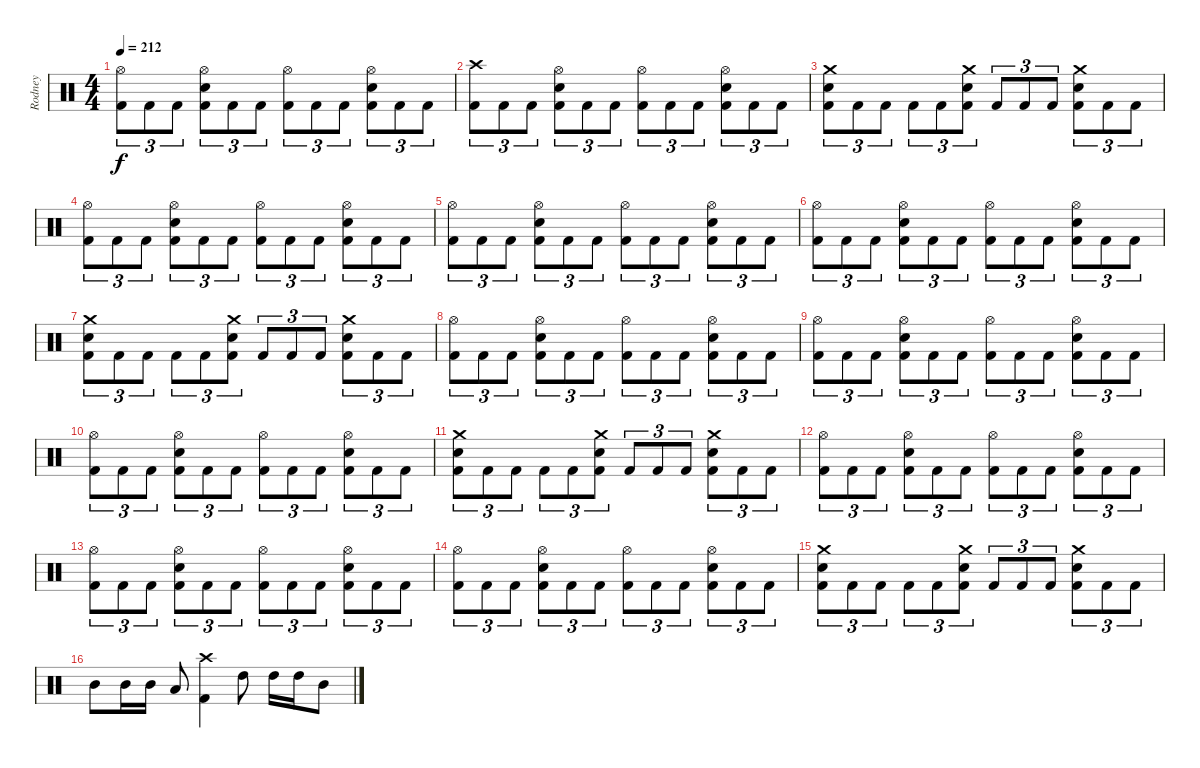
\track ("Rodney" "Rodney") {instrument percussion}
\staff {score}
\articulation defaults
\ts (4 4)
\tempo 212
\clef neutral
\ks c
("Hi-Hat (open)" "Kick (hit) 2").8{tu (3 2) dy f} "Kick (hit) 2".8{tu (3 2)} "Kick (hit) 2".8{tu (3 2)} ("Hi-Hat (open)" "Snare (hit) 2" "Kick (hit) 2").8{tu (3 2)} "Kick (hit) 2".8{tu (3 2)} "Kick (hit) 2".8{tu (3 2)} ("Hi-Hat (open)" "Kick (hit) 2").8{tu (3 2)} "Kick (hit) 2".8{tu (3 2)} "Kick (hit) 2".8{tu (3 2)} ("Hi-Hat (open)" "Snare (hit) 2" "Kick (hit) 2").8{tu (3 2)} "Kick (hit) 2".8{tu (3 2)} "Kick (hit) 2".8{tu (3 2)} |
("Crash high (hit)" "Kick (hit) 2").8{tu (3 2)} "Kick (hit) 2".8{tu (3 2)} "Kick (hit) 2".8{tu (3 2)} ("Hi-Hat (open)" "Snare (hit) 2" "Kick (hit) 2").8{tu (3 2)} "Kick (hit) 2".8{tu (3 2)} "Kick (hit) 2".8{tu (3 2)} ("Hi-Hat (open)" "Kick (hit) 2").8{tu (3 2)} "Kick (hit) 2".8{tu (3 2)} "Kick (hit) 2".8{tu (3 2)} ("Hi-Hat (open)" "Snare (hit) 2" "Kick (hit) 2").8{tu (3 2)} "Kick (hit) 2".8{tu (3 2)} "Kick (hit) 2".8{tu (3 2)} |
("Crash medium (hit)" "Snare (hit) 2" "Kick (hit) 2").8{tu (3 2)} "Kick (hit) 2".8{tu (3 2)} "Kick (hit) 2".8{tu (3 2)} "Kick (hit) 2".8{tu (3 2)} "Kick (hit) 2".8{tu (3 2)} ("Crash medium (hit)" "Snare (hit) 2" "Kick (hit) 2").8{tu (3 2)} "Kick (hit) 2".8{tu (3 2)} "Kick (hit) 2".8{tu (3 2)} "Kick (hit) 2".8{tu (3 2)} ("Crash medium (hit)" "Snare (hit) 2" "Kick (hit) 2").8{tu (3 2)} "Kick (hit) 2".8{tu (3 2)} "Kick (hit) 2".8{tu (3 2)} |
("Hi-Hat (open)" "Kick (hit) 2").8{tu (3 2)} "Kick (hit) 2".8{tu (3 2)} "Kick (hit) 2".8{tu (3 2)} ("Hi-Hat (open)" "Snare (hit) 2" "Kick (hit) 2").8{tu (3 2)} "Kick (hit) 2".8{tu (3 2)} "Kick (hit) 2".8{tu (3 2)} ("Hi-Hat (open)" "Kick (hit) 2").8{tu (3 2)} "Kick (hit) 2".8{tu (3 2)} "Kick (hit) 2".8{tu (3 2)} ("Hi-Hat (open)" "Snare (hit) 2" "Kick (hit) 2").8{tu (3 2)} "Kick (hit) 2".8{tu (3 2)} "Kick (hit) 2".8{tu (3 2)} |
("Hi-Hat (open)" "Kick (hit) 2").8{tu (3 2)} "Kick (hit) 2".8{tu (3 2)} "Kick (hit) 2".8{tu (3 2)} ("Hi-Hat (open)" "Snare (hit) 2" "Kick (hit) 2").8{tu (3 2)} "Kick (hit) 2".8{tu (3 2)} "Kick (hit) 2".8{tu (3 2)} ("Hi-Hat (open)" "Kick (hit) 2").8{tu (3 2)} "Kick (hit) 2".8{tu (3 2)} "Kick (hit) 2".8{tu (3 2)} ("Hi-Hat (open)" "Snare (hit) 2" "Kick (hit) 2").8{tu (3 2)} "Kick (hit) 2".8{tu (3 2)} "Kick (hit) 2".8{tu (3 2)} |
("Hi-Hat (open)" "Kick (hit) 2").8{tu (3 2)} "Kick (hit) 2".8{tu (3 2)} "Kick (hit) 2".8{tu (3 2)} ("Hi-Hat (open)" "Snare (hit) 2" "Kick (hit) 2").8{tu (3 2)} "Kick (hit) 2".8{tu (3 2)} "Kick (hit) 2".8{tu (3 2)} ("Hi-Hat (open)" "Kick (hit) 2").8{tu (3 2)} "Kick (hit) 2".8{tu (3 2)} "Kick (hit) 2".8{tu (3 2)} ("Hi-Hat (open)" "Snare (hit) 2" "Kick (hit) 2").8{tu (3 2)} "Kick (hit) 2".8{tu (3 2)} "Kick (hit) 2".8{tu (3 2)} |
("Crash medium (hit)" "Snare (hit) 2" "Kick (hit) 2").8{tu (3 2)} "Kick (hit) 2".8{tu (3 2)} "Kick (hit) 2".8{tu (3 2)} "Kick (hit) 2".8{tu (3 2)} "Kick (hit) 2".8{tu (3 2)} ("Crash medium (hit)" "Snare (hit) 2" "Kick (hit) 2").8{tu (3 2)} "Kick (hit) 2".8{tu (3 2)} "Kick (hit) 2".8{tu (3 2)} "Kick (hit) 2".8{tu (3 2)} ("Crash medium (hit)" "Snare (hit) 2" "Kick (hit) 2").8{tu (3 2)} "Kick (hit) 2".8{tu (3 2)} "Kick (hit) 2".8{tu (3 2)} |
("Hi-Hat (open)" "Kick (hit) 2").8{tu (3 2)} "Kick (hit) 2".8{tu (3 2)} "Kick (hit) 2".8{tu (3 2)} ("Hi-Hat (open)" "Snare (hit) 2" "Kick (hit) 2").8{tu (3 2)} "Kick (hit) 2".8{tu (3 2)} "Kick (hit) 2".8{tu (3 2)} ("Hi-Hat (open)" "Kick (hit) 2").8{tu (3 2)} "Kick (hit) 2".8{tu (3 2)} "Kick (hit) 2".8{tu (3 2)} ("Hi-Hat (open)" "Snare (hit) 2" "Kick (hit) 2").8{tu (3 2)} "Kick (hit) 2".8{tu (3 2)} "Kick (hit) 2".8{tu (3 2)} |
("Hi-Hat (open)" "Kick (hit) 2").8{tu (3 2)} "Kick (hit) 2".8{tu (3 2)} "Kick (hit) 2".8{tu (3 2)} ("Hi-Hat (open)" "Snare (hit) 2" "Kick (hit) 2").8{tu (3 2)} "Kick (hit) 2".8{tu (3 2)} "Kick (hit) 2".8{tu (3 2)} ("Hi-Hat (open)" "Kick (hit) 2").8{tu (3 2)} "Kick (hit) 2".8{tu (3 2)} "Kick (hit) 2".8{tu (3 2)} ("Hi-Hat (open)" "Snare (hit) 2" "Kick (hit) 2").8{tu (3 2)} "Kick (hit) 2".8{tu (3 2)} "Kick (hit) 2".8{tu (3 2)} |
("Hi-Hat (open)" "Kick (hit) 2").8{tu (3 2)} "Kick (hit) 2".8{tu (3 2)} "Kick (hit) 2".8{tu (3 2)} ("Hi-Hat (open)" "Snare (hit) 2" "Kick (hit) 2").8{tu (3 2)} "Kick (hit) 2".8{tu (3 2)} "Kick (hit) 2".8{tu (3 2)} ("Hi-Hat (open)" "Kick (hit) 2").8{tu (3 2)} "Kick (hit) 2".8{tu (3 2)} "Kick (hit) 2".8{tu (3 2)} ("Hi-Hat (open)" "Snare (hit) 2" "Kick (hit) 2").8{tu (3 2)} "Kick (hit) 2".8{tu (3 2)} "Kick (hit) 2".8{tu (3 2)} |
("Crash medium (hit)" "Snare (hit) 2" "Kick (hit) 2").8{tu (3 2)} "Kick (hit) 2".8{tu (3 2)} "Kick (hit) 2".8{tu (3 2)} "Kick (hit) 2".8{tu (3 2)} "Kick (hit) 2".8{tu (3 2)} ("Crash medium (hit)" "Snare (hit) 2" "Kick (hit) 2").8{tu (3 2)} "Kick (hit) 2".8{tu (3 2)} "Kick (hit) 2".8{tu (3 2)} "Kick (hit) 2".8{tu (3 2)} ("Crash medium (hit)" "Snare (hit) 2" "Kick (hit) 2").8{tu (3 2)} "Kick (hit) 2".8{tu (3 2)} "Kick (hit) 2".8{tu (3 2)} |
("Hi-Hat (open)" "Kick (hit) 2").8{tu (3 2)} "Kick (hit) 2".8{tu (3 2)} "Kick (hit) 2".8{tu (3 2)} ("Hi-Hat (open)" "Snare (hit) 2" "Kick (hit) 2").8{tu (3 2)} "Kick (hit) 2".8{tu (3 2)} "Kick (hit) 2".8{tu (3 2)} ("Hi-Hat (open)" "Kick (hit) 2").8{tu (3 2)} "Kick (hit) 2".8{tu (3 2)} "Kick (hit) 2".8{tu (3 2)} ("Hi-Hat (open)" "Snare (hit) 2" "Kick (hit) 2").8{tu (3 2)} "Kick (hit) 2".8{tu (3 2)} "Kick (hit) 2".8{tu (3 2)} |
("Hi-Hat (open)" "Kick (hit) 2").8{tu (3 2)} "Kick (hit) 2".8{tu (3 2)} "Kick (hit) 2".8{tu (3 2)} ("Hi-Hat (open)" "Snare (hit) 2" "Kick (hit) 2").8{tu (3 2)} "Kick (hit) 2".8{tu (3 2)} "Kick (hit) 2".8{tu (3 2)} ("Hi-Hat (open)" "Kick (hit) 2").8{tu (3 2)} "Kick (hit) 2".8{tu (3 2)} "Kick (hit) 2".8{tu (3 2)} ("Hi-Hat (open)" "Snare (hit) 2" "Kick (hit) 2").8{tu (3 2)} "Kick (hit) 2".8{tu (3 2)} "Kick (hit) 2".8{tu (3 2)} |
("Hi-Hat (open)" "Kick (hit) 2").8{tu (3 2)} "Kick (hit) 2".8{tu (3 2)} "Kick (hit) 2".8{tu (3 2)} ("Hi-Hat (open)" "Snare (hit) 2" "Kick (hit) 2").8{tu (3 2)} "Kick (hit) 2".8{tu (3 2)} "Kick (hit) 2".8{tu (3 2)} ("Hi-Hat (open)" "Kick (hit) 2").8{tu (3 2)} "Kick (hit) 2".8{tu (3 2)} "Kick (hit) 2".8{tu (3 2)} ("Hi-Hat (open)" "Snare (hit) 2" "Kick (hit) 2").8{tu (3 2)} "Kick (hit) 2".8{tu (3 2)} "Kick (hit) 2".8{tu (3 2)} |
("Crash medium (hit)" "Snare (hit) 2" "Kick (hit) 2").8{tu (3 2)} "Kick (hit) 2".8{tu (3 2)} "Kick (hit) 2".8{tu (3 2)} "Kick (hit) 2".8{tu (3 2)} "Kick (hit) 2".8{tu (3 2)} ("Crash medium (hit)" "Snare (hit) 2" "Kick (hit) 2").8{tu (3 2)} "Kick (hit) 2".8{tu (3 2)} "Kick (hit) 2".8{tu (3 2)} "Kick (hit) 2".8{tu (3 2)} ("Crash medium (hit)" "Snare (hit) 2" "Kick (hit) 2").8{tu (3 2)} "Kick (hit) 2".8{tu (3 2)} "Kick (hit) 2".8{tu (3 2)} |
"Mid Tom (hit)".8 "Mid Tom (hit)".16 "Mid Tom (hit)".16 "Low Tom (hit)".8 ("Crash high (hit)" "Kick (hit) 2").4 "High Tom (hit)".8 "High Tom (hit)".16 "High Tom (hit)".16 "Mid Tom (hit)".8
